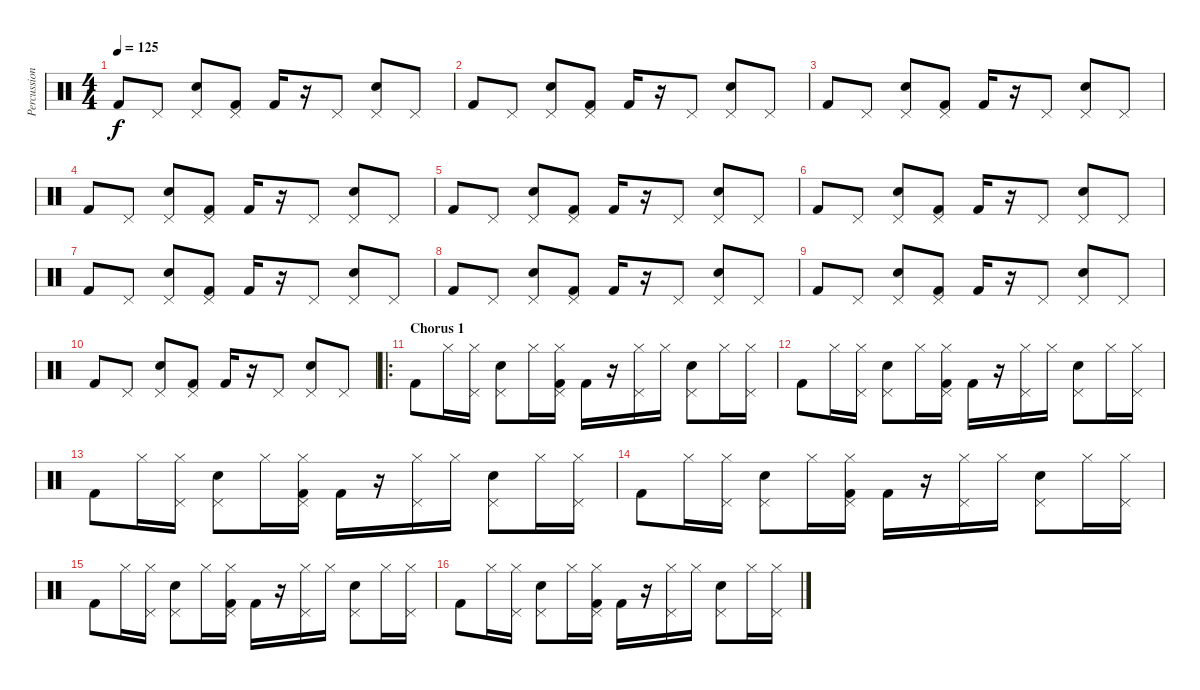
\track ("Percussions" "Percussion") {instrument percussion}
\staff {score}
\articulation defaults
\ts (4 4)
\tempo 125
\clef neutral
\ks c "Kick (hit) 2".8{dy f} "Pedal Hi-Hat (hit)".8
("Pedal Hi-Hat (hit)" "Electric Snare (hit)").8 ("Pedal Hi-Hat (hit)" "Kick (hit) 2").8 "Kick (hit) 2".16 r.16 "Pedal Hi-Hat (hit)".8 ("Pedal Hi-Hat (hit)" "Electric Snare (hit)").8 "Pedal Hi-Hat (hit)".8 |
"Kick (hit) 2".8 "Pedal Hi-Hat (hit)".8 ("Pedal Hi-Hat (hit)" "Electric Snare (hit)").8 ("Pedal Hi-Hat (hit)" "Kick (hit) 2").8 "Kick (hit) 2".16 r.16 "Pedal Hi-Hat (hit)".8 ("Pedal Hi-Hat (hit)" "Electric Snare (hit)").8 "Pedal Hi-Hat (hit)".8 |
"Kick (hit) 2".8 "Pedal Hi-Hat (hit)".8 ("Pedal Hi-Hat (hit)" "Electric Snare (hit)").8 ("Pedal Hi-Hat (hit)" "Kick (hit) 2").8 "Kick (hit) 2".16 r.16 "Pedal Hi-Hat (hit)".8 ("Pedal Hi-Hat (hit)" "Electric Snare (hit)").8 "Pedal Hi-Hat (hit)".8 |
"Kick (hit) 2".8 "Pedal Hi-Hat (hit)".8 ("Pedal Hi-Hat (hit)" "Electric Snare (hit)").8 ("Pedal Hi-Hat (hit)" "Kick (hit) 2").8 "Kick (hit) 2".16 r.16 "Pedal Hi-Hat (hit)".8 ("Pedal Hi-Hat (hit)" "Electric Snare (hit)").8 "Pedal Hi-Hat (hit)".8 |
"Kick (hit) 2".8 "Pedal Hi-Hat (hit)".8 ("Pedal Hi-Hat (hit)" "Electric Snare (hit)").8 ("Pedal Hi-Hat (hit)" "Kick (hit) 2").8 "Kick (hit) 2".16 r.16 "Pedal Hi-Hat (hit)".8 ("Pedal Hi-Hat (hit)" "Electric Snare (hit)").8 "Pedal Hi-Hat (hit)".8 |
"Kick (hit) 2".8 "Pedal Hi-Hat (hit)".8 ("Pedal Hi-Hat (hit)" "Electric Snare (hit)").8 ("Pedal Hi-Hat (hit)" "Kick (hit) 2").8 "Kick (hit) 2".16 r.16 "Pedal Hi-Hat (hit)".8 ("Pedal Hi-Hat (hit)" "Electric Snare (hit)").8 "Pedal Hi-Hat (hit)".8 |
"Kick (hit) 2".8 "Pedal Hi-Hat (hit)".8 ("Pedal Hi-Hat (hit)" "Electric Snare (hit)").8 ("Pedal Hi-Hat (hit)" "Kick (hit) 2").8 "Kick (hit) 2".16 r.16 "Pedal Hi-Hat (hit)".8 ("Pedal Hi-Hat (hit)" "Electric Snare (hit)").8 "Pedal Hi-Hat (hit)".8 |
"Kick (hit) 2".8 "Pedal Hi-Hat (hit)".8 ("Pedal Hi-Hat (hit)" "Electric Snare (hit)").8 ("Pedal Hi-Hat (hit)" "Kick (hit) 2").8 "Kick (hit) 2".16 r.16 "Pedal Hi-Hat (hit)".8 ("Pedal Hi-Hat (hit)" "Electric Snare (hit)").8 "Pedal Hi-Hat (hit)".8 |
"Kick (hit) 2".8 "Pedal Hi-Hat (hit)".8 ("Pedal Hi-Hat (hit)" "Electric Snare (hit)").8 ("Pedal Hi-Hat (hit)" "Kick (hit) 2").8 "Kick (hit) 2".16 r.16 "Pedal Hi-Hat (hit)".8 ("Pedal Hi-Hat (hit)" "Electric Snare (hit)").8 "Pedal Hi-Hat (hit)".8 |
"Kick (hit) 2".8 "Pedal Hi-Hat (hit)".8 ("Pedal Hi-Hat (hit)" "Electric Snare (hit)").8 ("Pedal Hi-Hat (hit)" "Kick (hit) 2").8 "Kick (hit) 2".16 r.16 "Pedal Hi-Hat (hit)".8 ("Pedal Hi-Hat (hit)" "Electric Snare (hit)").8 "Pedal Hi-Hat (hit)".8 |
\ro
\section ("" "Chorus 1")
"Kick (hit) 2".8 "Hi-Hat (closed)".16 ("Pedal Hi-Hat (hit)" "Hi-Hat (closed)").16 ("Pedal Hi-Hat (hit)" "Electric Snare (hit)").8 "Hi-Hat (closed)".16 ("Pedal Hi-Hat (hit)" "Hi-Hat (closed)" "Kick (hit) 2").16 "Kick (hit) 2".16 r.16 ("Pedal Hi-Hat (hit)" "Hi-Hat (closed)").16 "Hi-Hat (closed)".16 ("Pedal Hi-Hat (hit)" "Electric Snare (hit)").8 "Hi-Hat (closed)".16 ("Pedal Hi-Hat (hit)" "Hi-Hat (closed)").16 |
"Kick (hit) 2".8 "Hi-Hat (closed)".16 ("Pedal Hi-Hat (hit)" "Hi-Hat (closed)").16 ("Pedal Hi-Hat (hit)" "Electric Snare (hit)").8 "Hi-Hat (closed)".16 ("Pedal Hi-Hat (hit)" "Hi-Hat (closed)" "Kick (hit) 2").16 "Kick (hit) 2".16 r.16 ("Pedal Hi-Hat (hit)" "Hi-Hat (closed)").16 "Hi-Hat (closed)".16 ("Pedal Hi-Hat (hit)" "Electric Snare (hit)").8 "Hi-Hat (closed)".16 ("Pedal Hi-Hat (hit)" "Hi-Hat (closed)").16 |
"Kick (hit) 2".8 "Hi-Hat (closed)".16 ("Pedal Hi-Hat (hit)" "Hi-Hat (closed)").16 ("Pedal Hi-Hat (hit)" "Electric Snare (hit)").8 "Hi-Hat (closed)".16 ("Pedal Hi-Hat (hit)" "Hi-Hat (closed)" "Kick (hit) 2").16 "Kick (hit) 2".16 r.16 ("Pedal Hi-Hat (hit)" "Hi-Hat (closed)").16 "Hi-Hat (closed)".16 ("Pedal Hi-Hat (hit)" "Electric Snare (hit)").8 "Hi-Hat (closed)".16 ("Pedal Hi-Hat (hit)" "Hi-Hat (closed)").16 |
"Kick (hit) 2".8 "Hi-Hat (closed)".16 ("Pedal Hi-Hat (hit)" "Hi-Hat (closed)").16 ("Pedal Hi-Hat (hit)" "Electric Snare (hit)").8 "Hi-Hat (closed)".16 ("Pedal Hi-Hat (hit)" "Hi-Hat (closed)" "Kick (hit) 2").16 "Kick (hit) 2".16 r.16 ("Pedal Hi-Hat (hit)" "Hi-Hat (closed)").16 "Hi-Hat (closed)".16 ("Pedal Hi-Hat (hit)" "Electric Snare (hit)").8 "Hi-Hat (closed)".16 ("Pedal Hi-Hat (hit)" "Hi-Hat (closed)").16 |
"Kick (hit) 2".8 "Hi-Hat (closed)".16 ("Pedal Hi-Hat (hit)" "Hi-Hat (closed)").16 ("Pedal Hi-Hat (hit)" "Electric Snare (hit)").8 "Hi-Hat (closed)".16 ("Pedal Hi-Hat (hit)" "Hi-Hat (closed)" "Kick (hit) 2").16 "Kick (hit) 2".16 r.16 ("Pedal Hi-Hat (hit)" "Hi-Hat (closed)").16 "Hi-Hat (closed)".16 ("Pedal Hi-Hat (hit)" "Electric Snare (hit)").8 "Hi-Hat (closed)".16 ("Pedal Hi-Hat (hit)" "Hi-Hat (closed)").16 |
"Kick (hit) 2".8 "Hi-Hat (closed)".16 ("Pedal Hi-Hat (hit)" "Hi-Hat (closed)").16 ("Pedal Hi-Hat (hit)" "Electric Snare (hit)").8 "Hi-Hat (closed)".16 ("Pedal Hi-Hat (hit)" "Hi-Hat (closed)" "Kick (hit) 2").16 "Kick (hit) 2".16 r.16 ("Pedal Hi-Hat (hit)" "Hi-Hat (closed)").16 "Hi-Hat (closed)".16 ("Pedal Hi-Hat (hit)" "Electric Snare (hit)").8 "Hi-Hat (closed)".16 ("Pedal Hi-Hat (hit)" "Hi-Hat (closed)").16
